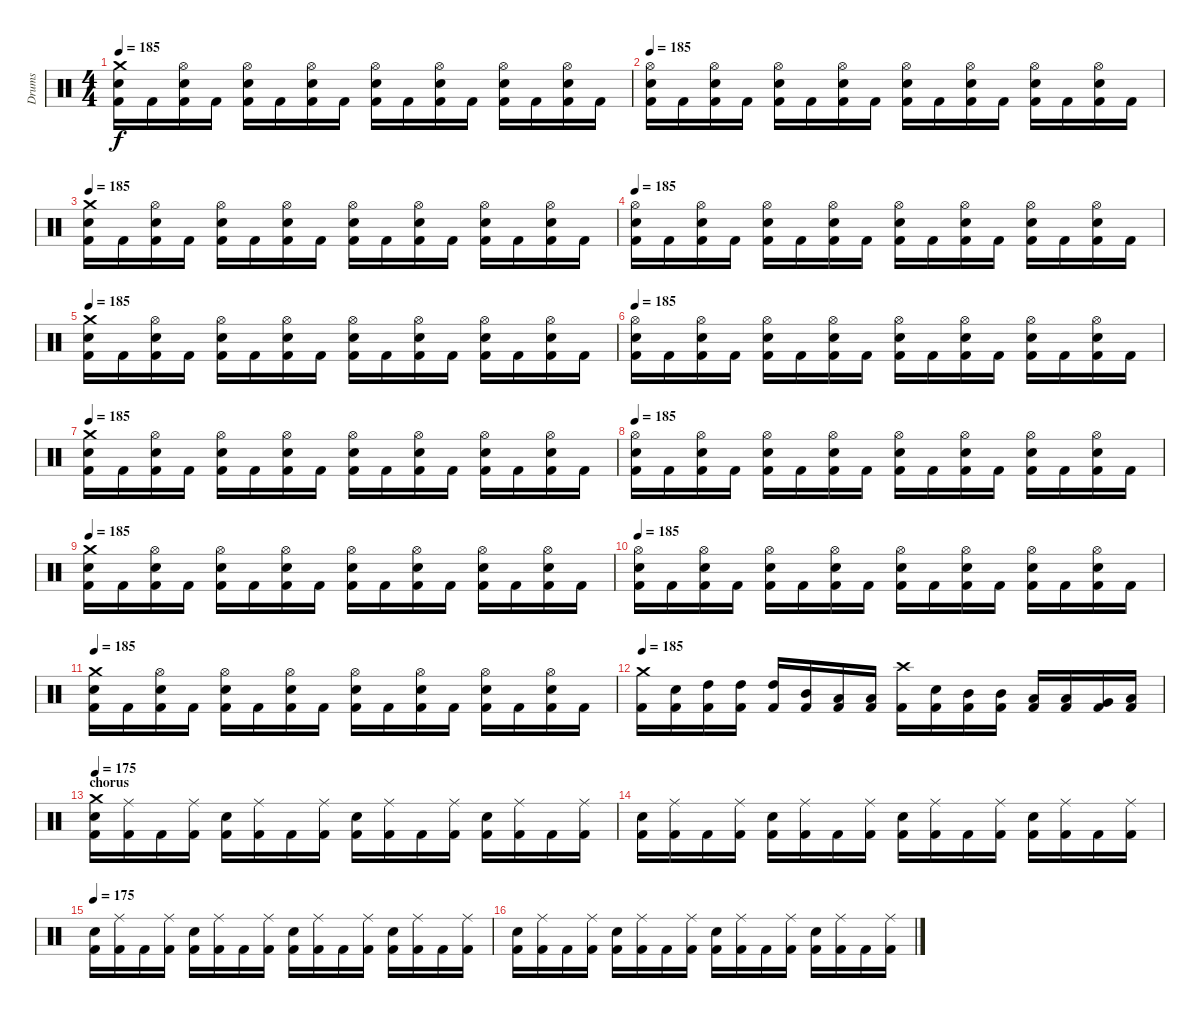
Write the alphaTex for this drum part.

\track ("Drums" "Drums") {instrument percussion}
\staff {score}
\articulation defaults
\ts (4 4)
\tempo 185
\clef neutral
\ks c
("Crash medium (hit)" "Electric Snare (hit)" "Kick (hit) 2").16{dy f} "Kick (hit) 2".16 ("Hi-Hat (open)" "Electric Snare (hit)" "Kick (hit) 2").16 "Kick (hit) 2".16 ("Hi-Hat (open)" "Electric Snare (hit)" "Kick (hit) 2").16 "Kick (hit) 2".16 ("Hi-Hat (open)" "Electric Snare (hit)" "Kick (hit) 2").16 "Kick (hit) 2".16 ("Hi-Hat (open)" "Electric Snare (hit)" "Kick (hit) 2").16 "Kick (hit) 2".16 ("Hi-Hat (open)" "Electric Snare (hit)" "Kick (hit) 2").16 "Kick (hit) 2".16 ("Hi-Hat (open)" "Electric Snare (hit)" "Kick (hit) 2").16 "Kick (hit) 2".16 ("Hi-Hat (open)" "Electric Snare (hit)" "Kick (hit) 2").16 "Kick (hit) 2".16 |
\tempo 185
("Hi-Hat (open)" "Electric Snare (hit)" "Kick (hit) 2").16 "Kick (hit) 2".16 ("Hi-Hat (open)" "Electric Snare (hit)" "Kick (hit) 2").16 "Kick (hit) 2".16 ("Hi-Hat (open)" "Electric Snare (hit)" "Kick (hit) 2").16 "Kick (hit) 2".16 ("Hi-Hat (open)" "Electric Snare (hit)" "Kick (hit) 2").16 "Kick (hit) 2".16 ("Hi-Hat (open)" "Electric Snare (hit)" "Kick (hit) 2").16 "Kick (hit) 2".16 ("Hi-Hat (open)" "Electric Snare (hit)" "Kick (hit) 2").16 "Kick (hit) 2".16 ("Hi-Hat (open)" "Electric Snare (hit)" "Kick (hit) 2").16 "Kick (hit) 2".16 ("Hi-Hat (open)" "Electric Snare (hit)" "Kick (hit) 2").16 "Kick (hit) 2".16 |
\tempo 185
("Crash medium (hit)" "Electric Snare (hit)" "Kick (hit) 2").16 "Kick (hit) 2".16 ("Hi-Hat (open)" "Electric Snare (hit)" "Kick (hit) 2").16 "Kick (hit) 2".16 ("Hi-Hat (open)" "Electric Snare (hit)" "Kick (hit) 2").16 "Kick (hit) 2".16 ("Hi-Hat (open)" "Electric Snare (hit)" "Kick (hit) 2").16 "Kick (hit) 2".16 ("Hi-Hat (open)" "Electric Snare (hit)" "Kick (hit) 2").16 "Kick (hit) 2".16 ("Hi-Hat (open)" "Electric Snare (hit)" "Kick (hit) 2").16 "Kick (hit) 2".16 ("Hi-Hat (open)" "Electric Snare (hit)" "Kick (hit) 2").16 "Kick (hit) 2".16 ("Hi-Hat (open)" "Electric Snare (hit)" "Kick (hit) 2").16 "Kick (hit) 2".16 |
\tempo 185
("Hi-Hat (open)" "Electric Snare (hit)" "Kick (hit) 2").16 "Kick (hit) 2".16 ("Hi-Hat (open)" "Electric Snare (hit)" "Kick (hit) 2").16 "Kick (hit) 2".16 ("Hi-Hat (open)" "Electric Snare (hit)" "Kick (hit) 2").16 "Kick (hit) 2".16 ("Hi-Hat (open)" "Electric Snare (hit)" "Kick (hit) 2").16 "Kick (hit) 2".16 ("Hi-Hat (open)" "Electric Snare (hit)" "Kick (hit) 2").16 "Kick (hit) 2".16 ("Hi-Hat (open)" "Electric Snare (hit)" "Kick (hit) 2").16 "Kick (hit) 2".16 ("Hi-Hat (open)" "Electric Snare (hit)" "Kick (hit) 2").16 "Kick (hit) 2".16 ("Hi-Hat (open)" "Electric Snare (hit)" "Kick (hit) 2").16 "Kick (hit) 2".16 |
\tempo 185
("Crash medium (hit)" "Electric Snare (hit)" "Kick (hit) 2").16 "Kick (hit) 2".16 ("Hi-Hat (open)" "Electric Snare (hit)" "Kick (hit) 2").16 "Kick (hit) 2".16 ("Hi-Hat (open)" "Electric Snare (hit)" "Kick (hit) 2").16 "Kick (hit) 2".16 ("Hi-Hat (open)" "Electric Snare (hit)" "Kick (hit) 2").16 "Kick (hit) 2".16 ("Hi-Hat (open)" "Electric Snare (hit)" "Kick (hit) 2").16 "Kick (hit) 2".16 ("Hi-Hat (open)" "Electric Snare (hit)" "Kick (hit) 2").16 "Kick (hit) 2".16 ("Hi-Hat (open)" "Electric Snare (hit)" "Kick (hit) 2").16 "Kick (hit) 2".16 ("Hi-Hat (open)" "Electric Snare (hit)" "Kick (hit) 2").16 "Kick (hit) 2".16 |
\tempo 185
("Hi-Hat (open)" "Electric Snare (hit)" "Kick (hit) 2").16 "Kick (hit) 2".16 ("Hi-Hat (open)" "Electric Snare (hit)" "Kick (hit) 2").16 "Kick (hit) 2".16 ("Hi-Hat (open)" "Electric Snare (hit)" "Kick (hit) 2").16 "Kick (hit) 2".16 ("Hi-Hat (open)" "Electric Snare (hit)" "Kick (hit) 2").16 "Kick (hit) 2".16 ("Hi-Hat (open)" "Electric Snare (hit)" "Kick (hit) 2").16 "Kick (hit) 2".16 ("Hi-Hat (open)" "Electric Snare (hit)" "Kick (hit) 2").16 "Kick (hit) 2".16 ("Hi-Hat (open)" "Electric Snare (hit)" "Kick (hit) 2").16 "Kick (hit) 2".16 ("Hi-Hat (open)" "Electric Snare (hit)" "Kick (hit) 2").16 "Kick (hit) 2".16 |
\tempo 185
("Crash medium (hit)" "Electric Snare (hit)" "Kick (hit) 2").16 "Kick (hit) 2".16 ("Hi-Hat (open)" "Electric Snare (hit)" "Kick (hit) 2").16 "Kick (hit) 2".16 ("Hi-Hat (open)" "Electric Snare (hit)" "Kick (hit) 2").16 "Kick (hit) 2".16 ("Hi-Hat (open)" "Electric Snare (hit)" "Kick (hit) 2").16 "Kick (hit) 2".16 ("Hi-Hat (open)" "Electric Snare (hit)" "Kick (hit) 2").16 "Kick (hit) 2".16 ("Hi-Hat (open)" "Electric Snare (hit)" "Kick (hit) 2").16 "Kick (hit) 2".16 ("Hi-Hat (open)" "Electric Snare (hit)" "Kick (hit) 2").16 "Kick (hit) 2".16 ("Hi-Hat (open)" "Electric Snare (hit)" "Kick (hit) 2").16 "Kick (hit) 2".16 |
\tempo 185
("Hi-Hat (open)" "Electric Snare (hit)" "Kick (hit) 2").16 "Kick (hit) 2".16 ("Hi-Hat (open)" "Electric Snare (hit)" "Kick (hit) 2").16 "Kick (hit) 2".16 ("Hi-Hat (open)" "Electric Snare (hit)" "Kick (hit) 2").16 "Kick (hit) 2".16 ("Hi-Hat (open)" "Electric Snare (hit)" "Kick (hit) 2").16 "Kick (hit) 2".16 ("Hi-Hat (open)" "Electric Snare (hit)" "Kick (hit) 2").16 "Kick (hit) 2".16 ("Hi-Hat (open)" "Electric Snare (hit)" "Kick (hit) 2").16 "Kick (hit) 2".16 ("Hi-Hat (open)" "Electric Snare (hit)" "Kick (hit) 2").16 "Kick (hit) 2".16 ("Hi-Hat (open)" "Electric Snare (hit)" "Kick (hit) 2").16 "Kick (hit) 2".16 |
\tempo 185
("Crash medium (hit)" "Electric Snare (hit)" "Kick (hit) 2").16 "Kick (hit) 2".16 ("Hi-Hat (open)" "Electric Snare (hit)" "Kick (hit) 2").16 "Kick (hit) 2".16 ("Hi-Hat (open)" "Electric Snare (hit)" "Kick (hit) 2").16 "Kick (hit) 2".16 ("Hi-Hat (open)" "Electric Snare (hit)" "Kick (hit) 2").16 "Kick (hit) 2".16 ("Hi-Hat (open)" "Electric Snare (hit)" "Kick (hit) 2").16 "Kick (hit) 2".16 ("Hi-Hat (open)" "Electric Snare (hit)" "Kick (hit) 2").16 "Kick (hit) 2".16 ("Hi-Hat (open)" "Electric Snare (hit)" "Kick (hit) 2").16 "Kick (hit) 2".16 ("Hi-Hat (open)" "Electric Snare (hit)" "Kick (hit) 2").16 "Kick (hit) 2".16 |
\tempo 185
("Hi-Hat (open)" "Electric Snare (hit)" "Kick (hit) 2").16 "Kick (hit) 2".16 ("Hi-Hat (open)" "Electric Snare (hit)" "Kick (hit) 2").16 "Kick (hit) 2".16 ("Hi-Hat (open)" "Electric Snare (hit)" "Kick (hit) 2").16 "Kick (hit) 2".16 ("Hi-Hat (open)" "Electric Snare (hit)" "Kick (hit) 2").16 "Kick (hit) 2".16 ("Hi-Hat (open)" "Electric Snare (hit)" "Kick (hit) 2").16 "Kick (hit) 2".16 ("Hi-Hat (open)" "Electric Snare (hit)" "Kick (hit) 2").16 "Kick (hit) 2".16 ("Hi-Hat (open)" "Electric Snare (hit)" "Kick (hit) 2").16 "Kick (hit) 2".16 ("Hi-Hat (open)" "Electric Snare (hit)" "Kick (hit) 2").16 "Kick (hit) 2".16 |
\tempo 185
("Crash medium (hit)" "Electric Snare (hit)" "Kick (hit) 2").16 "Kick (hit) 2".16 ("Hi-Hat (open)" "Electric Snare (hit)" "Kick (hit) 2").16 "Kick (hit) 2".16 ("Hi-Hat (open)" "Electric Snare (hit)" "Kick (hit) 2").16 "Kick (hit) 2".16 ("Hi-Hat (open)" "Electric Snare (hit)" "Kick (hit) 2").16 "Kick (hit) 2".16 ("Hi-Hat (open)" "Electric Snare (hit)" "Kick (hit) 2").16 "Kick (hit) 2".16 ("Hi-Hat (open)" "Electric Snare (hit)" "Kick (hit) 2").16 "Kick (hit) 2".16 ("Hi-Hat (open)" "Electric Snare (hit)" "Kick (hit) 2").16 "Kick (hit) 2".16 ("Hi-Hat (open)" "Electric Snare (hit)" "Kick (hit) 2").16 "Kick (hit) 2".16 |
\tempo 185
("Crash medium (hit)" "Kick (hit) 2").16 ("Electric Snare (hit)" "Kick (hit) 2").16 ("High Tom (hit)" "Kick (hit) 2").16 ("High Tom (hit)" "Kick (hit) 2").16 ("High Tom (hit)" "Kick (hit) 2").16 ("Mid Tom (hit)" "Kick (hit) 2").16 ("Low Tom (hit)" "Kick (hit) 2").16 ("Low Tom (hit)" "Kick (hit) 2").16 ("Crash high (hit)" "Kick (hit) 2").16 ("Electric Snare (hit)" "Kick (hit) 2").16 ("Mid Tom (hit)" "Kick (hit) 2").16 ("Mid Tom (hit)" "Kick (hit) 2").16 ("Low Tom (hit)" "Kick (hit) 2").16 ("Low Tom (hit)" "Kick (hit) 2").16 ("Very Low Tom (hit)" "Kick (hit) 2").16 ("Low Floor Tom (hit)" "Kick (hit) 2").16 |
\section ("" "chorus")
\tempo 175
("Crash medium (hit)" "Electric Snare (hit)" "Kick (hit) 2").16 ("Ride (middle)" "Kick (hit) 2").16 "Kick (hit) 2".16 ("Ride (middle)" "Kick (hit) 2").16 ("Electric Snare (hit)" "Kick (hit) 2").16 ("Ride (middle)" "Kick (hit) 2").16 "Kick (hit) 2".16 ("Ride (middle)" "Kick (hit) 2").16 ("Electric Snare (hit)" "Kick (hit) 2").16 ("Ride (middle)" "Kick (hit) 2").16 "Kick (hit) 2".16 ("Ride (middle)" "Kick (hit) 2").16 ("Electric Snare (hit)" "Kick (hit) 2").16 ("Ride (middle)" "Kick (hit) 2").16 "Kick (hit) 2".16 ("Ride (middle)" "Kick (hit) 2").16 |
("Electric Snare (hit)" "Kick (hit) 2").16 ("Ride (middle)" "Kick (hit) 2").16 "Kick (hit) 2".16 ("Ride (middle)" "Kick (hit) 2").16 ("Electric Snare (hit)" "Kick (hit) 2").16 ("Ride (middle)" "Kick (hit) 2").16 "Kick (hit) 2".16 ("Ride (middle)" "Kick (hit) 2").16 ("Electric Snare (hit)" "Kick (hit) 2").16 ("Ride (middle)" "Kick (hit) 2").16 "Kick (hit) 2".16 ("Ride (middle)" "Kick (hit) 2").16 ("Electric Snare (hit)" "Kick (hit) 2").16 ("Ride (middle)" "Kick (hit) 2").16 "Kick (hit) 2".16 ("Ride (middle)" "Kick (hit) 2").16 |
\tempo 175
("Electric Snare (hit)" "Kick (hit) 2").16 ("Ride (middle)" "Kick (hit) 2").16 "Kick (hit) 2".16 ("Ride (middle)" "Kick (hit) 2").16 ("Electric Snare (hit)" "Kick (hit) 2").16 ("Ride (middle)" "Kick (hit) 2").16 "Kick (hit) 2".16 ("Ride (middle)" "Kick (hit) 2").16 ("Electric Snare (hit)" "Kick (hit) 2").16 ("Ride (middle)" "Kick (hit) 2").16 "Kick (hit) 2".16 ("Ride (middle)" "Kick (hit) 2").16 ("Electric Snare (hit)" "Kick (hit) 2").16 ("Ride (middle)" "Kick (hit) 2").16 "Kick (hit) 2".16 ("Ride (middle)" "Kick (hit) 2").16 |
("Electric Snare (hit)" "Kick (hit) 2").16 ("Ride (middle)" "Kick (hit) 2").16 "Kick (hit) 2".16 ("Ride (middle)" "Kick (hit) 2").16 ("Electric Snare (hit)" "Kick (hit) 2").16 ("Ride (middle)" "Kick (hit) 2").16 "Kick (hit) 2".16 ("Ride (middle)" "Kick (hit) 2").16 ("Electric Snare (hit)" "Kick (hit) 2").16 ("Ride (middle)" "Kick (hit) 2").16 "Kick (hit) 2".16 ("Ride (middle)" "Kick (hit) 2").16 ("Electric Snare (hit)" "Kick (hit) 2").16 ("Ride (middle)" "Kick (hit) 2").16 "Kick (hit) 2".16 ("Ride (middle)" "Kick (hit) 2").16
